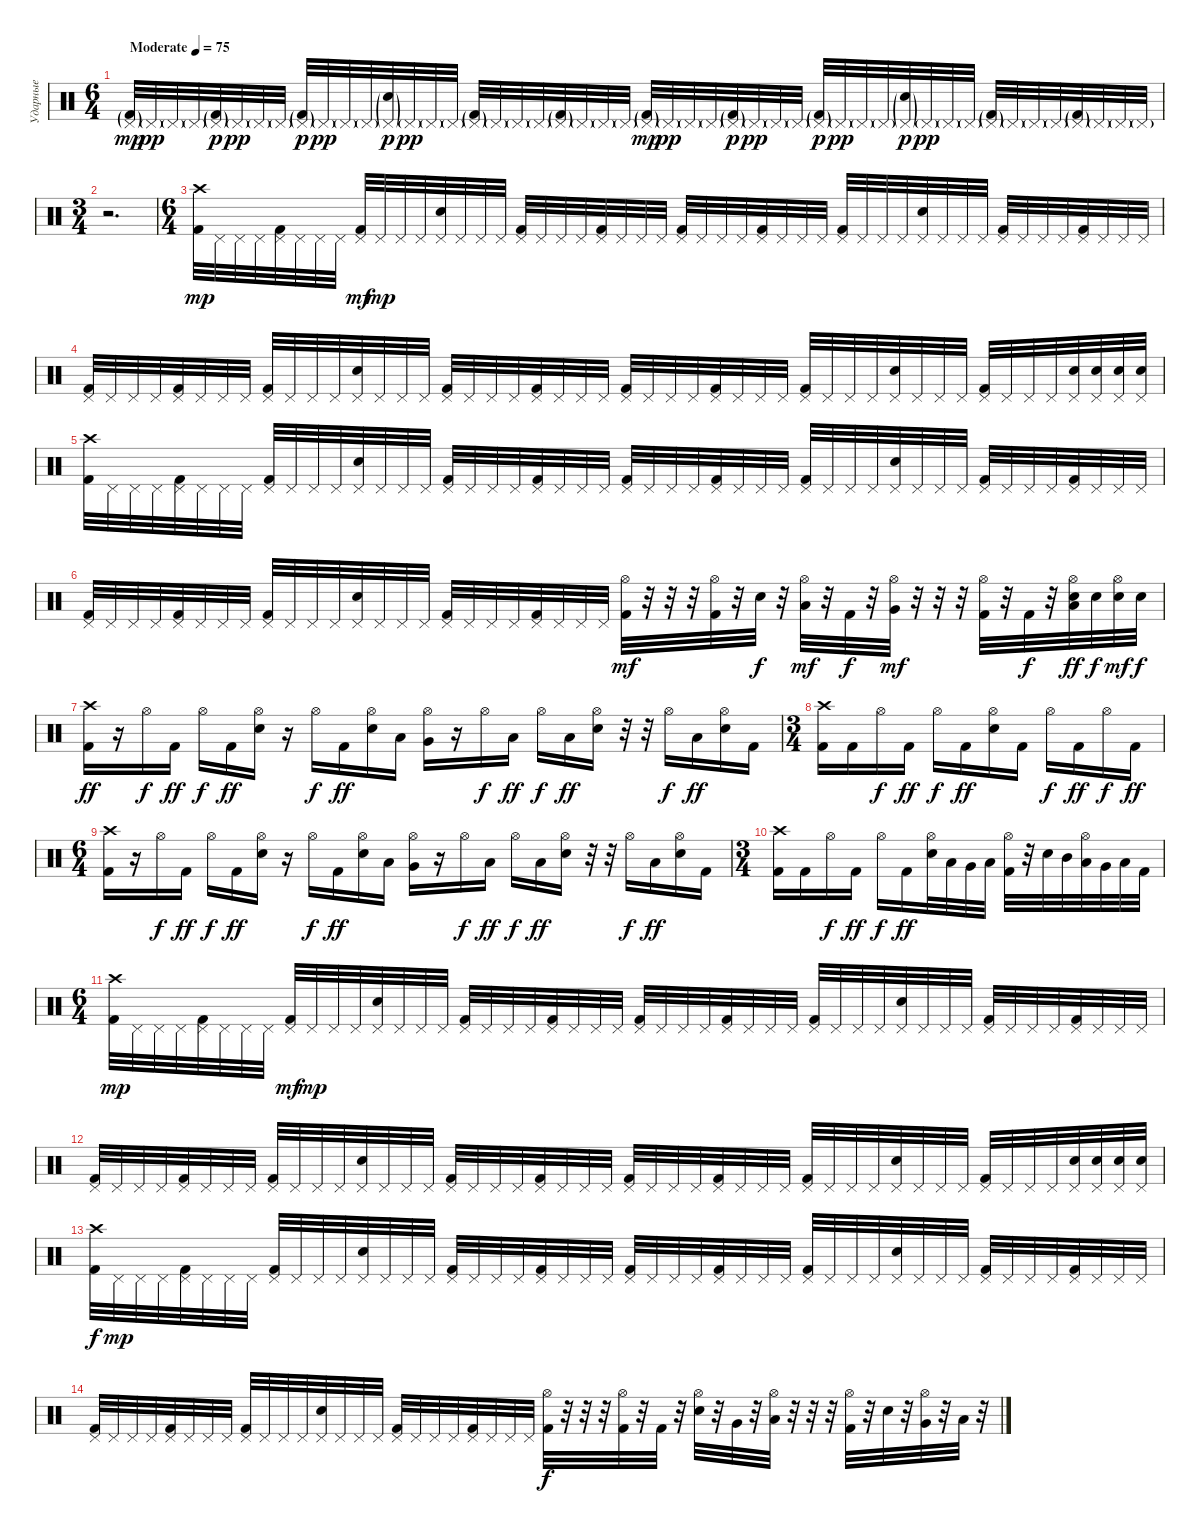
\track ("Ударные" "Ударные") {instrument percussion}
\staff {score}
\articulation defaults
\ts (6 4)
\tempo (75 "Moderate")
\clef neutral
\ks c
("Pedal Hi-Hat (hit)"{g} "Kick (hit) 2"{g}).32{dy mp} "Pedal Hi-Hat (hit)"{g}.32{dy pp} "Pedal Hi-Hat (hit)"{g}.32 "Pedal Hi-Hat (hit)"{g}.32 ("Pedal Hi-Hat (hit)"{g} "Kick (hit) 2"{g}).32{dy p} "Pedal Hi-Hat (hit)"{g}.32{dy pp} "Pedal Hi-Hat (hit)"{g}.32 "Pedal Hi-Hat (hit)"{g}.32 ("Pedal Hi-Hat (hit)"{g} "Kick (hit) 2"{g}).32{dy p} "Pedal Hi-Hat (hit)"{g}.32{dy pp} "Pedal Hi-Hat (hit)"{g}.32 "Pedal Hi-Hat (hit)"{g}.32 ("Pedal Hi-Hat (hit)"{g} "Snare (hit) 2"{g}).32{dy p} "Pedal Hi-Hat (hit)"{g}.32{dy pp} "Pedal Hi-Hat (hit)"{g}.32 "Pedal Hi-Hat (hit)"{g}.32 ("Pedal Hi-Hat (hit)"{g} "Kick (hit) 2"{g}).32 "Pedal Hi-Hat (hit)"{g}.32 "Pedal Hi-Hat (hit)"{g}.32 "Pedal Hi-Hat (hit)"{g}.32 ("Pedal Hi-Hat (hit)"{g} "Kick (hit) 2"{g}).32 "Pedal Hi-Hat (hit)"{g}.32 "Pedal Hi-Hat (hit)"{g}.32 "Pedal Hi-Hat (hit)"{g}.32 ("Pedal Hi-Hat (hit)"{g} "Kick (hit) 2"{g}).32{dy mp} "Pedal Hi-Hat (hit)"{g}.32{dy pp} "Pedal Hi-Hat (hit)"{g}.32 "Pedal Hi-Hat (hit)"{g}.32 ("Pedal Hi-Hat (hit)"{g} "Kick (hit) 2"{g}).32{dy p} "Pedal Hi-Hat (hit)"{g}.32{dy pp} "Pedal Hi-Hat (hit)"{g}.32 "Pedal Hi-Hat (hit)"{g}.32 ("Pedal Hi-Hat (hit)"{g} "Kick (hit) 2"{g}).32{dy p} "Pedal Hi-Hat (hit)"{g}.32{dy pp} "Pedal Hi-Hat (hit)"{g}.32 "Pedal Hi-Hat (hit)"{g}.32 ("Pedal Hi-Hat (hit)"{g} "Snare (hit) 2"{g}).32{dy p} "Pedal Hi-Hat (hit)"{g}.32{dy pp} "Pedal Hi-Hat (hit)"{g}.32 "Pedal Hi-Hat (hit)"{g}.32 ("Pedal Hi-Hat (hit)"{g} "Kick (hit) 2"{g}).32 "Pedal Hi-Hat (hit)"{g}.32 "Pedal Hi-Hat (hit)"{g}.32 "Pedal Hi-Hat (hit)"{g}.32 ("Pedal Hi-Hat (hit)"{g} "Kick (hit) 2"{g}).32 "Pedal Hi-Hat (hit)"{g}.32 "Pedal Hi-Hat (hit)"{g}.32 "Pedal Hi-Hat (hit)"{g}.32 |
\ts (3 4)
r.2{d} |
\ts (6 4)
("Crash high (hit)" "Kick (hit) 2").32{dy mp} "Pedal Hi-Hat (hit)".32 "Pedal Hi-Hat (hit)".32 "Pedal Hi-Hat (hit)".32 ("Pedal Hi-Hat (hit)" "Kick (hit) 2").32 "Pedal Hi-Hat (hit)".32 "Pedal Hi-Hat (hit)".32 "Pedal Hi-Hat (hit)".32 ("Pedal Hi-Hat (hit)" "Kick (hit) 2").32{dy mf} "Pedal Hi-Hat (hit)".32{dy mp} "Pedal Hi-Hat (hit)".32 "Pedal Hi-Hat (hit)".32 ("Pedal Hi-Hat (hit)" "Snare (hit) 2").32 "Pedal Hi-Hat (hit)".32 "Pedal Hi-Hat (hit)".32 "Pedal Hi-Hat (hit)".32 ("Pedal Hi-Hat (hit)" "Kick (hit) 2").32 "Pedal Hi-Hat (hit)".32 "Pedal Hi-Hat (hit)".32 "Pedal Hi-Hat (hit)".32 ("Pedal Hi-Hat (hit)" "Kick (hit) 2").32 "Pedal Hi-Hat (hit)".32 "Pedal Hi-Hat (hit)".32 "Pedal Hi-Hat (hit)".32 ("Pedal Hi-Hat (hit)" "Kick (hit) 2").32 "Pedal Hi-Hat (hit)".32 "Pedal Hi-Hat (hit)".32 "Pedal Hi-Hat (hit)".32 ("Pedal Hi-Hat (hit)" "Kick (hit) 2").32 "Pedal Hi-Hat (hit)".32 "Pedal Hi-Hat (hit)".32 "Pedal Hi-Hat (hit)".32 ("Pedal Hi-Hat (hit)" "Kick (hit) 2").32 "Pedal Hi-Hat (hit)".32 "Pedal Hi-Hat (hit)".32 "Pedal Hi-Hat (hit)".32 ("Pedal Hi-Hat (hit)" "Snare (hit) 2").32 "Pedal Hi-Hat (hit)".32 "Pedal Hi-Hat (hit)".32 "Pedal Hi-Hat (hit)".32 ("Pedal Hi-Hat (hit)" "Kick (hit) 2").32 "Pedal Hi-Hat (hit)".32 "Pedal Hi-Hat (hit)".32 "Pedal Hi-Hat (hit)".32 ("Pedal Hi-Hat (hit)" "Kick (hit) 2").32 "Pedal Hi-Hat (hit)".32 "Pedal Hi-Hat (hit)".32 "Pedal Hi-Hat (hit)".32 |
("Pedal Hi-Hat (hit)" "Kick (hit) 2").32 "Pedal Hi-Hat (hit)".32 "Pedal Hi-Hat (hit)".32 "Pedal Hi-Hat (hit)".32 ("Pedal Hi-Hat (hit)" "Kick (hit) 2").32 "Pedal Hi-Hat (hit)".32 "Pedal Hi-Hat (hit)".32 "Pedal Hi-Hat (hit)".32 ("Pedal Hi-Hat (hit)" "Kick (hit) 2").32 "Pedal Hi-Hat (hit)".32 "Pedal Hi-Hat (hit)".32 "Pedal Hi-Hat (hit)".32 ("Pedal Hi-Hat (hit)" "Snare (hit) 2").32 "Pedal Hi-Hat (hit)".32 "Pedal Hi-Hat (hit)".32 "Pedal Hi-Hat (hit)".32 ("Pedal Hi-Hat (hit)" "Kick (hit) 2").32 "Pedal Hi-Hat (hit)".32 "Pedal Hi-Hat (hit)".32 "Pedal Hi-Hat (hit)".32 ("Pedal Hi-Hat (hit)" "Kick (hit) 2").32 "Pedal Hi-Hat (hit)".32 "Pedal Hi-Hat (hit)".32 "Pedal Hi-Hat (hit)".32 ("Pedal Hi-Hat (hit)" "Kick (hit) 2").32 "Pedal Hi-Hat (hit)".32 "Pedal Hi-Hat (hit)".32 "Pedal Hi-Hat (hit)".32 ("Pedal Hi-Hat (hit)" "Kick (hit) 2").32 "Pedal Hi-Hat (hit)".32 "Pedal Hi-Hat (hit)".32 "Pedal Hi-Hat (hit)".32 ("Pedal Hi-Hat (hit)" "Kick (hit) 2").32 "Pedal Hi-Hat (hit)".32 "Pedal Hi-Hat (hit)".32 "Pedal Hi-Hat (hit)".32 ("Pedal Hi-Hat (hit)" "Snare (hit) 2").32 "Pedal Hi-Hat (hit)".32 "Pedal Hi-Hat (hit)".32 "Pedal Hi-Hat (hit)".32 ("Pedal Hi-Hat (hit)" "Kick (hit) 2").32 "Pedal Hi-Hat (hit)".32 "Pedal Hi-Hat (hit)".32 "Pedal Hi-Hat (hit)".32 ("Pedal Hi-Hat (hit)" "Snare (hit) 2").32 ("Pedal Hi-Hat (hit)" "Snare (hit) 2").32 ("Pedal Hi-Hat (hit)" "Snare (hit) 2").32 ("Pedal Hi-Hat (hit)" "Snare (hit) 2").32 |
("Crash high (hit)" "Kick (hit) 2").32 "Pedal Hi-Hat (hit)".32 "Pedal Hi-Hat (hit)".32 "Pedal Hi-Hat (hit)".32 ("Pedal Hi-Hat (hit)" "Kick (hit) 2").32 "Pedal Hi-Hat (hit)".32 "Pedal Hi-Hat (hit)".32 "Pedal Hi-Hat (hit)".32 ("Pedal Hi-Hat (hit)" "Kick (hit) 2").32 "Pedal Hi-Hat (hit)".32 "Pedal Hi-Hat (hit)".32 "Pedal Hi-Hat (hit)".32 ("Pedal Hi-Hat (hit)" "Snare (hit) 2").32 "Pedal Hi-Hat (hit)".32 "Pedal Hi-Hat (hit)".32 "Pedal Hi-Hat (hit)".32 ("Pedal Hi-Hat (hit)" "Kick (hit) 2").32 "Pedal Hi-Hat (hit)".32 "Pedal Hi-Hat (hit)".32 "Pedal Hi-Hat (hit)".32 ("Pedal Hi-Hat (hit)" "Kick (hit) 2").32 "Pedal Hi-Hat (hit)".32 "Pedal Hi-Hat (hit)".32 "Pedal Hi-Hat (hit)".32 ("Pedal Hi-Hat (hit)" "Kick (hit) 2").32 "Pedal Hi-Hat (hit)".32 "Pedal Hi-Hat (hit)".32 "Pedal Hi-Hat (hit)".32 ("Pedal Hi-Hat (hit)" "Kick (hit) 2").32 "Pedal Hi-Hat (hit)".32 "Pedal Hi-Hat (hit)".32 "Pedal Hi-Hat (hit)".32 ("Pedal Hi-Hat (hit)" "Kick (hit) 2").32 "Pedal Hi-Hat (hit)".32 "Pedal Hi-Hat (hit)".32 "Pedal Hi-Hat (hit)".32 ("Pedal Hi-Hat (hit)" "Snare (hit) 2").32 "Pedal Hi-Hat (hit)".32 "Pedal Hi-Hat (hit)".32 "Pedal Hi-Hat (hit)".32 ("Pedal Hi-Hat (hit)" "Kick (hit) 2").32 "Pedal Hi-Hat (hit)".32 "Pedal Hi-Hat (hit)".32 "Pedal Hi-Hat (hit)".32 ("Pedal Hi-Hat (hit)" "Kick (hit) 2").32 "Pedal Hi-Hat (hit)".32 "Pedal Hi-Hat (hit)".32 "Pedal Hi-Hat (hit)".32 |
("Pedal Hi-Hat (hit)" "Kick (hit) 2").32 "Pedal Hi-Hat (hit)".32 "Pedal Hi-Hat (hit)".32 "Pedal Hi-Hat (hit)".32 ("Pedal Hi-Hat (hit)" "Kick (hit) 2").32 "Pedal Hi-Hat (hit)".32 "Pedal Hi-Hat (hit)".32 "Pedal Hi-Hat (hit)".32 ("Pedal Hi-Hat (hit)" "Kick (hit) 2").32 "Pedal Hi-Hat (hit)".32 "Pedal Hi-Hat (hit)".32 "Pedal Hi-Hat (hit)".32 ("Pedal Hi-Hat (hit)" "Snare (hit) 2").32 "Pedal Hi-Hat (hit)".32 "Pedal Hi-Hat (hit)".32 "Pedal Hi-Hat (hit)".32 ("Pedal Hi-Hat (hit)" "Kick (hit) 2").32 "Pedal Hi-Hat (hit)".32 "Pedal Hi-Hat (hit)".32 "Pedal Hi-Hat (hit)".32 ("Pedal Hi-Hat (hit)" "Kick (hit) 2").32 "Pedal Hi-Hat (hit)".32 "Pedal Hi-Hat (hit)".32 "Pedal Hi-Hat (hit)".32 ("Hi-Hat (open)" "Kick (hit) 2").32{dy mf} r.32 r.32 r.32 ("Hi-Hat (open)" "Kick (hit) 2").32 r.32 "Snare (hit) 2".32{dy f} r.32 ("Hi-Hat (open)" "Low Floor Tom (hit)").32{dy mf} r.32 "Kick (hit) 2".32{dy f} r.32 ("Hi-Hat (open)" "Very Low Tom (hit)").32{dy mf} r.32 r.32 r.32 ("Hi-Hat (open)" "Kick (hit) 2").32 r.32 "Kick (hit) 2".32{dy f} r.32 ("Hi-Hat (open)" "Snare (hit) 2" "Low Floor Tom (hit)").32{dy ff} "Snare (hit) 2".32{dy f} ("Hi-Hat (open)" "Snare (hit) 2").32{dy mf} "Snare (hit) 2".32{dy f} |
("Crash high (hit)" "Kick (hit) 2").16{dy ff} r.16 "Hi-Hat (open)".16{dy f} "Kick (hit) 2".16{dy ff} "Hi-Hat (open)".16{dy f} "Kick (hit) 2".16{dy ff} ("Hi-Hat (open)" "Snare (hit) 2").16 r.16 "Hi-Hat (open)".16{dy f} "Kick (hit) 2".16{dy ff} ("Hi-Hat (open)" "Snare (hit) 2").16 "Low Floor Tom (hit)".16 ("Hi-Hat (open)" "Very Low Tom (hit)").16 r.16 "Hi-Hat (open)".16{dy f} "Low Floor Tom (hit)".16{dy ff} "Hi-Hat (open)".16{dy f} "Low Floor Tom (hit)".16{dy ff} ("Hi-Hat (open)" "Snare (hit) 2").16 r.32 r.32 "Hi-Hat (open)".16{dy f} "Low Floor Tom (hit)".16{dy ff} ("Hi-Hat (open)" "Snare (hit) 2").16 "Kick (hit) 2".16 |
\ts (3 4)
("Crash high (hit)" "Kick (hit) 2").16 "Kick (hit) 2".16 "Hi-Hat (open)".16{dy f} "Kick (hit) 2".16{dy ff} "Hi-Hat (open)".16{dy f} "Kick (hit) 2".16{dy ff} ("Hi-Hat (open)" "Snare (hit) 2").16 "Kick (hit) 2".16 "Hi-Hat (open)".16{dy f} "Kick (hit) 2".16{dy ff} "Hi-Hat (open)".16{dy f} "Kick (hit) 2".16{dy ff} |
\ts (6 4)
("Crash high (hit)" "Kick (hit) 2").16 r.16 "Hi-Hat (open)".16{dy f} "Kick (hit) 2".16{dy ff} "Hi-Hat (open)".16{dy f} "Kick (hit) 2".16{dy ff} ("Hi-Hat (open)" "Snare (hit) 2").16 r.16 "Hi-Hat (open)".16{dy f} "Kick (hit) 2".16{dy ff} ("Hi-Hat (open)" "Snare (hit) 2").16 "Low Floor Tom (hit)".16 ("Hi-Hat (open)" "Very Low Tom (hit)").16 r.16 "Hi-Hat (open)".16{dy f} "Low Floor Tom (hit)".16{dy ff} "Hi-Hat (open)".16{dy f} "Low Floor Tom (hit)".16{dy ff} ("Hi-Hat (open)" "Snare (hit) 2").16 r.32 r.32 "Hi-Hat (open)".16{dy f} "Low Floor Tom (hit)".16{dy ff} ("Hi-Hat (open)" "Snare (hit) 2").16 "Kick (hit) 2".16 |
\ts (3 4)
("Crash high (hit)" "Kick (hit) 2").16 "Kick (hit) 2".16 "Hi-Hat (open)".16{dy f} "Kick (hit) 2".16{dy ff} "Hi-Hat (open)".16{dy f} "Kick (hit) 2".16{dy ff} ("Hi-Hat (open)" "Snare (hit) 2").32 "Low Tom (hit)".32 "Very Low Tom (hit)".32 "Low Floor Tom (hit)".32 ("Hi-Hat (open)" "Kick (hit) 2").32 r.32 "Snare (hit) 2".32 "Mid Tom (hit)".32 ("Hi-Hat (open)" "Low Tom (hit)").32 "Very Low Tom (hit)".32 "Low Floor Tom (hit)".32 "Kick (hit) 2".32 |
\ts (6 4)
("Crash high (hit)" "Kick (hit) 2").32{dy mp} "Pedal Hi-Hat (hit)".32 "Pedal Hi-Hat (hit)".32 "Pedal Hi-Hat (hit)".32 ("Pedal Hi-Hat (hit)" "Kick (hit) 2").32 "Pedal Hi-Hat (hit)".32 "Pedal Hi-Hat (hit)".32 "Pedal Hi-Hat (hit)".32 ("Pedal Hi-Hat (hit)" "Kick (hit) 2").32{dy mf} "Pedal Hi-Hat (hit)".32{dy mp} "Pedal Hi-Hat (hit)".32 "Pedal Hi-Hat (hit)".32 ("Pedal Hi-Hat (hit)" "Snare (hit) 2").32 "Pedal Hi-Hat (hit)".32 "Pedal Hi-Hat (hit)".32 "Pedal Hi-Hat (hit)".32 ("Pedal Hi-Hat (hit)" "Kick (hit) 2").32 "Pedal Hi-Hat (hit)".32 "Pedal Hi-Hat (hit)".32 "Pedal Hi-Hat (hit)".32 ("Pedal Hi-Hat (hit)" "Kick (hit) 2").32 "Pedal Hi-Hat (hit)".32 "Pedal Hi-Hat (hit)".32 "Pedal Hi-Hat (hit)".32 ("Pedal Hi-Hat (hit)" "Kick (hit) 2").32 "Pedal Hi-Hat (hit)".32 "Pedal Hi-Hat (hit)".32 "Pedal Hi-Hat (hit)".32 ("Pedal Hi-Hat (hit)" "Kick (hit) 2").32 "Pedal Hi-Hat (hit)".32 "Pedal Hi-Hat (hit)".32 "Pedal Hi-Hat (hit)".32 ("Pedal Hi-Hat (hit)" "Kick (hit) 2").32 "Pedal Hi-Hat (hit)".32 "Pedal Hi-Hat (hit)".32 "Pedal Hi-Hat (hit)".32 ("Pedal Hi-Hat (hit)" "Snare (hit) 2").32 "Pedal Hi-Hat (hit)".32 "Pedal Hi-Hat (hit)".32 "Pedal Hi-Hat (hit)".32 ("Pedal Hi-Hat (hit)" "Kick (hit) 2").32 "Pedal Hi-Hat (hit)".32 "Pedal Hi-Hat (hit)".32 "Pedal Hi-Hat (hit)".32 ("Pedal Hi-Hat (hit)" "Kick (hit) 2").32 "Pedal Hi-Hat (hit)".32 "Pedal Hi-Hat (hit)".32 "Pedal Hi-Hat (hit)".32 |
("Pedal Hi-Hat (hit)" "Kick (hit) 2").32 "Pedal Hi-Hat (hit)".32 "Pedal Hi-Hat (hit)".32 "Pedal Hi-Hat (hit)".32 ("Pedal Hi-Hat (hit)" "Kick (hit) 2").32 "Pedal Hi-Hat (hit)".32 "Pedal Hi-Hat (hit)".32 "Pedal Hi-Hat (hit)".32 ("Pedal Hi-Hat (hit)" "Kick (hit) 2").32 "Pedal Hi-Hat (hit)".32 "Pedal Hi-Hat (hit)".32 "Pedal Hi-Hat (hit)".32 ("Pedal Hi-Hat (hit)" "Snare (hit) 2").32 "Pedal Hi-Hat (hit)".32 "Pedal Hi-Hat (hit)".32 "Pedal Hi-Hat (hit)".32 ("Pedal Hi-Hat (hit)" "Kick (hit) 2").32 "Pedal Hi-Hat (hit)".32 "Pedal Hi-Hat (hit)".32 "Pedal Hi-Hat (hit)".32 ("Pedal Hi-Hat (hit)" "Kick (hit) 2").32 "Pedal Hi-Hat (hit)".32 "Pedal Hi-Hat (hit)".32 "Pedal Hi-Hat (hit)".32 ("Pedal Hi-Hat (hit)" "Kick (hit) 2").32 "Pedal Hi-Hat (hit)".32 "Pedal Hi-Hat (hit)".32 "Pedal Hi-Hat (hit)".32 ("Pedal Hi-Hat (hit)" "Kick (hit) 2").32 "Pedal Hi-Hat (hit)".32 "Pedal Hi-Hat (hit)".32 "Pedal Hi-Hat (hit)".32 ("Pedal Hi-Hat (hit)" "Kick (hit) 2").32 "Pedal Hi-Hat (hit)".32 "Pedal Hi-Hat (hit)".32 "Pedal Hi-Hat (hit)".32 ("Pedal Hi-Hat (hit)" "Snare (hit) 2").32 "Pedal Hi-Hat (hit)".32 "Pedal Hi-Hat (hit)".32 "Pedal Hi-Hat (hit)".32 ("Pedal Hi-Hat (hit)" "Kick (hit) 2").32 "Pedal Hi-Hat (hit)".32 "Pedal Hi-Hat (hit)".32 "Pedal Hi-Hat (hit)".32 ("Pedal Hi-Hat (hit)" "Snare (hit) 2").32 ("Pedal Hi-Hat (hit)" "Snare (hit) 2").32 ("Pedal Hi-Hat (hit)" "Snare (hit) 2").32 ("Pedal Hi-Hat (hit)" "Snare (hit) 2").32 |
("Crash high (hit)" "Kick (hit) 2").32{dy f} "Pedal Hi-Hat (hit)".32{dy mp} "Pedal Hi-Hat (hit)".32 "Pedal Hi-Hat (hit)".32 ("Pedal Hi-Hat (hit)" "Kick (hit) 2").32 "Pedal Hi-Hat (hit)".32 "Pedal Hi-Hat (hit)".32 "Pedal Hi-Hat (hit)".32 ("Pedal Hi-Hat (hit)" "Kick (hit) 2").32 "Pedal Hi-Hat (hit)".32 "Pedal Hi-Hat (hit)".32 "Pedal Hi-Hat (hit)".32 ("Pedal Hi-Hat (hit)" "Snare (hit) 2").32 "Pedal Hi-Hat (hit)".32 "Pedal Hi-Hat (hit)".32 "Pedal Hi-Hat (hit)".32 ("Pedal Hi-Hat (hit)" "Kick (hit) 2").32 "Pedal Hi-Hat (hit)".32 "Pedal Hi-Hat (hit)".32 "Pedal Hi-Hat (hit)".32 ("Pedal Hi-Hat (hit)" "Kick (hit) 2").32 "Pedal Hi-Hat (hit)".32 "Pedal Hi-Hat (hit)".32 "Pedal Hi-Hat (hit)".32 ("Pedal Hi-Hat (hit)" "Kick (hit) 2").32 "Pedal Hi-Hat (hit)".32 "Pedal Hi-Hat (hit)".32 "Pedal Hi-Hat (hit)".32 ("Pedal Hi-Hat (hit)" "Kick (hit) 2").32 "Pedal Hi-Hat (hit)".32 "Pedal Hi-Hat (hit)".32 "Pedal Hi-Hat (hit)".32 ("Pedal Hi-Hat (hit)" "Kick (hit) 2").32 "Pedal Hi-Hat (hit)".32 "Pedal Hi-Hat (hit)".32 "Pedal Hi-Hat (hit)".32 ("Pedal Hi-Hat (hit)" "Snare (hit) 2").32 "Pedal Hi-Hat (hit)".32 "Pedal Hi-Hat (hit)".32 "Pedal Hi-Hat (hit)".32 ("Pedal Hi-Hat (hit)" "Kick (hit) 2").32 "Pedal Hi-Hat (hit)".32 "Pedal Hi-Hat (hit)".32 "Pedal Hi-Hat (hit)".32 ("Pedal Hi-Hat (hit)" "Kick (hit) 2").32 "Pedal Hi-Hat (hit)".32 "Pedal Hi-Hat (hit)".32 "Pedal Hi-Hat (hit)".32 |
("Pedal Hi-Hat (hit)" "Kick (hit) 2").32 "Pedal Hi-Hat (hit)".32 "Pedal Hi-Hat (hit)".32 "Pedal Hi-Hat (hit)".32 ("Pedal Hi-Hat (hit)" "Kick (hit) 2").32 "Pedal Hi-Hat (hit)".32 "Pedal Hi-Hat (hit)".32 "Pedal Hi-Hat (hit)".32 ("Pedal Hi-Hat (hit)" "Kick (hit) 2").32 "Pedal Hi-Hat (hit)".32 "Pedal Hi-Hat (hit)".32 "Pedal Hi-Hat (hit)".32 ("Pedal Hi-Hat (hit)" "Snare (hit) 2").32 "Pedal Hi-Hat (hit)".32 "Pedal Hi-Hat (hit)".32 "Pedal Hi-Hat (hit)".32 ("Pedal Hi-Hat (hit)" "Kick (hit) 2").32 "Pedal Hi-Hat (hit)".32 "Pedal Hi-Hat (hit)".32 "Pedal Hi-Hat (hit)".32 ("Pedal Hi-Hat (hit)" "Kick (hit) 2").32 "Pedal Hi-Hat (hit)".32 "Pedal Hi-Hat (hit)".32 "Pedal Hi-Hat (hit)".32 ("Hi-Hat (open)" "Kick (hit) 2").32{dy f} r.32 r.32 r.32 ("Hi-Hat (open)" "Kick (hit) 2").32 r.32 "Kick (hit) 2".32 r.32 ("Hi-Hat (open)" "Snare (hit) 2").32 r.32 "Very Low Tom (hit)".32 r.32 ("Hi-Hat (open)" "Low Floor Tom (hit)").32 r.32 r.32 r.32 ("Hi-Hat (open)" "Kick (hit) 2").32 r.32 "Snare (hit) 2".32 r.32 ("Hi-Hat (open)" "Very Low Tom (hit)").32 r.32 "Low Floor Tom (hit)".32 r.32
